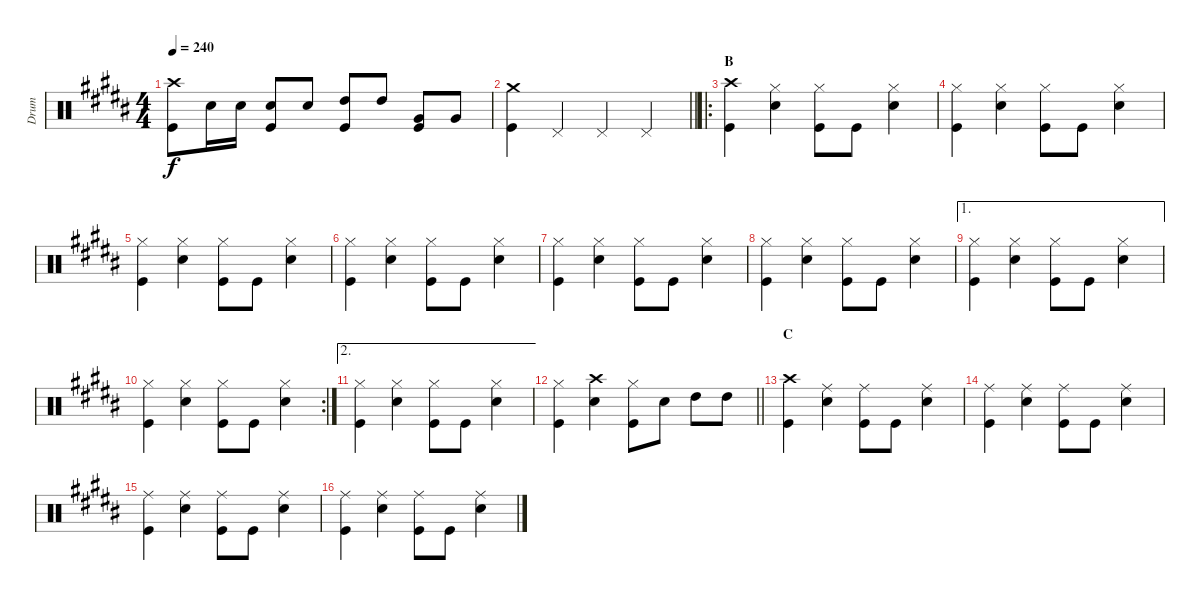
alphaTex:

\track ("Drum" "Drum") {instrument percussion}
\staff {score}
\articulation defaults
\ts (4 4)
\tempo 240
\clef neutral
\ks b
("Kick (hit)" "Crash high (hit)").8{dy f} "Snare (hit) 2".16 "Snare (hit) 2".16 ("Snare (hit) 2" "Kick (hit)").8 "Snare (hit) 2".8 ("High Tom (hit)" "Kick (hit)").8 "High Tom (hit)".8 ("Kick (hit)" "Very Low Tom (hit)").8 "Very Low Tom (hit)".8 |
\barLineRight lightlight
("Kick (hit)" "Crash medium (hit)").4 "Pedal Hi-Hat (hit)".4 "Pedal Hi-Hat (hit)".4 "Pedal Hi-Hat (hit)".4 |
\ro
\section ("" "B")
("Kick (hit)" "Crash high (hit)").4 ("Hi-Hat (closed)" "Snare (hit) 2").4 ("Hi-Hat (closed)" "Kick (hit)").8 "Kick (hit)".8 ("Snare (hit) 2" "Hi-Hat (closed)").4 |
("Kick (hit)" "Hi-Hat (closed)").4 ("Hi-Hat (closed)" "Snare (hit) 2").4 ("Hi-Hat (closed)" "Kick (hit)").8 "Kick (hit)".8 ("Snare (hit) 2" "Hi-Hat (closed)").4 |
("Kick (hit)" "Hi-Hat (closed)").4 ("Hi-Hat (closed)" "Snare (hit) 2").4 ("Hi-Hat (closed)" "Kick (hit)").8 "Kick (hit)".8 ("Snare (hit) 2" "Hi-Hat (closed)").4 |
("Kick (hit)" "Hi-Hat (closed)").4 ("Hi-Hat (closed)" "Snare (hit) 2").4 ("Hi-Hat (closed)" "Kick (hit)").8 "Kick (hit)".8 ("Snare (hit) 2" "Hi-Hat (closed)").4 |
("Kick (hit)" "Hi-Hat (closed)").4 ("Hi-Hat (closed)" "Snare (hit) 2").4 ("Hi-Hat (closed)" "Kick (hit)").8 "Kick (hit)".8 ("Snare (hit) 2" "Hi-Hat (closed)").4 |
("Kick (hit)" "Hi-Hat (closed)").4 ("Hi-Hat (closed)" "Snare (hit) 2").4 ("Hi-Hat (closed)" "Kick (hit)").8 "Kick (hit)".8 ("Snare (hit) 2" "Hi-Hat (closed)").4 |
\ae 1
("Kick (hit)" "Hi-Hat (closed)").4 ("Hi-Hat (closed)" "Snare (hit) 2").4 ("Hi-Hat (closed)" "Kick (hit)").8 "Kick (hit)".8 ("Snare (hit) 2" "Hi-Hat (closed)").4 |
\rc 2
("Kick (hit)" "Hi-Hat (closed)").4 ("Hi-Hat (closed)" "Snare (hit) 2").4 ("Hi-Hat (closed)" "Kick (hit)").8 "Kick (hit)".8 ("Snare (hit) 2" "Hi-Hat (closed)").4 |
\ae 2
("Kick (hit)" "Hi-Hat (closed)").4 ("Hi-Hat (closed)" "Snare (hit) 2").4 ("Hi-Hat (closed)" "Kick (hit)").8 "Kick (hit)".8 ("Snare (hit) 2" "Hi-Hat (closed)").4 |
\barLineRight lightlight
("Kick (hit)" "Hi-Hat (closed)").4 ("Crash high (hit)" "Snare (hit) 2").4 ("Kick (hit)" "Hi-Hat (closed)").8 "Snare (hit) 2".8 "High Tom (hit)".8 "High Tom (hit)".8 |
\section ("" "C")
("Kick (hit)" "Crash high (hit)").4 ("Ride (middle)" "Snare (hit) 2").4 ("Ride (middle)" "Kick (hit)").8 "Kick (hit)".8 ("Snare (hit) 2" "Ride (middle)").4 |
("Kick (hit)" "Ride (middle)").4 ("Ride (middle)" "Snare (hit) 2").4 ("Ride (middle)" "Kick (hit)").8 "Kick (hit)".8 ("Snare (hit) 2" "Ride (middle)").4 |
("Kick (hit)" "Ride (middle)").4 ("Ride (middle)" "Snare (hit) 2").4 ("Ride (middle)" "Kick (hit)").8 "Kick (hit)".8 ("Snare (hit) 2" "Ride (middle)").4 |
("Kick (hit)" "Ride (middle)").4 ("Ride (middle)" "Snare (hit) 2").4 ("Ride (middle)" "Kick (hit)").8 "Kick (hit)".8 ("Snare (hit) 2" "Ride (middle)").4
